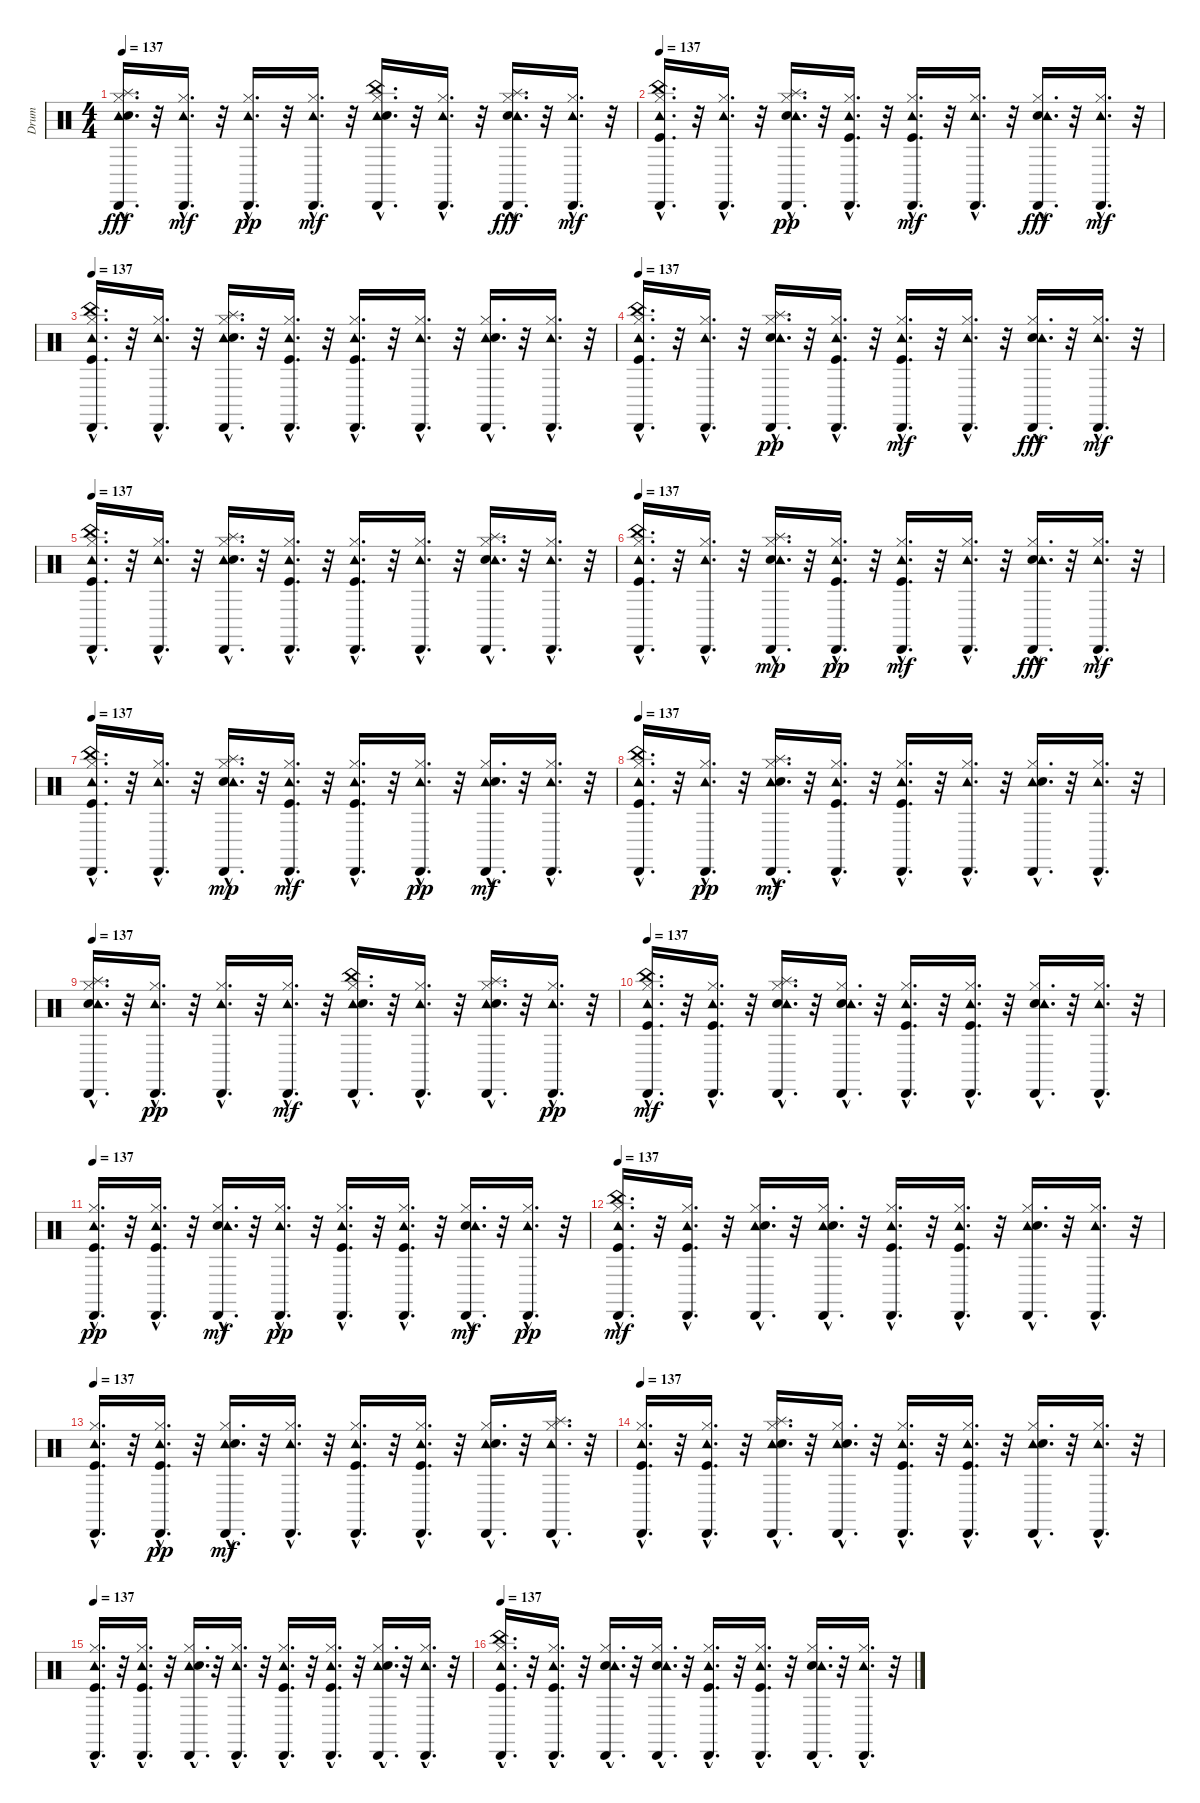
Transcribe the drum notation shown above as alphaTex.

\track ("Drum" "Drum") {instrument percussion}
\staff {score}
\articulation defaults
\ts (4 4)
\tempo 137
\clef neutral
\ks c
("Cabasa (hit)"{hac} "Tambourine (hit)"{hac} "Hi-Hat (closed)"{hac} "Snare (hit) 2"{hac} "Splash (hit)"{hac}).16{d dy fff} r.32 ("Tambourine (hit)"{hac} "Cabasa (hit)"{hac} "Hi-Hat (closed)"{hac}).16{d dy mf} r.32 ("Hi-Hat (closed)"{hac} "Cabasa (hit)"{hac} "Tambourine (hit)"{hac}).16{d dy pp} r.32 ("Hi-Hat (closed)"{hac} "Tambourine (hit)"{hac} "Cabasa (hit)"{hac}).16{d dy mf} r.32 ("Tambourine (hit)"{hac} "Cabasa (hit)"{hac} "China (hit)"{hac} "Hi-Hat (closed)"{hac} "Snare (hit) 2"{hac}).16{d} r.32 ("Tambourine (hit)"{hac} "Cabasa (hit)"{hac} "Hi-Hat (closed)"{hac}).16{d} r.32 ("Hi-Hat (closed)"{hac} "Splash (hit)"{hac} "Snare (hit) 2"{hac} "Cabasa (hit)"{hac} "Tambourine (hit)"{hac}).16{d dy fff} r.32 ("Tambourine (hit)"{hac} "Cabasa (hit)"{hac} "Hi-Hat (closed)"{hac}).16{d dy mf} r.32 |
\tempo 137
("China (hit)"{hac} "Cabasa (hit)"{hac} "Tambourine (hit)"{hac} "Kick (hit)"{hac} "Hi-Hat (closed)"{hac}).16{d} r.32 ("Cabasa (hit)"{hac} "Tambourine (hit)"{hac} "Hi-Hat (closed)"{hac}).16{d} r.32 ("Splash (hit)"{hac} "Cabasa (hit)"{hac} "Snare (hit) 2"{hac} "Hi-Hat (closed)"{hac} "Tambourine (hit)"{hac}).16{d dy pp} r.32 ("Kick (hit)"{hac} "Cabasa (hit)"{hac} "Hi-Hat (closed)"{hac} "Tambourine (hit)"{hac}).16{d} r.32 ("Cabasa (hit)"{hac} "Tambourine (hit)"{hac} "Kick (hit)"{hac} "Hi-Hat (closed)"{hac}).16{d dy mf} r.32 ("Cabasa (hit)"{hac} "Tambourine (hit)"{hac} "Hi-Hat (closed)"{hac}).16{d} r.32 ("Cabasa (hit)"{hac} "Snare (hit) 2"{hac} "Hi-Hat (closed)"{hac} "Tambourine (hit)"{hac}).16{d dy fff} r.32 ("Cabasa (hit)"{hac} "Tambourine (hit)"{hac} "Hi-Hat (closed)"{hac}).16{d dy mf} r.32 |
\tempo 137
("China (hit)"{hac} "Hi-Hat (closed)"{hac} "Kick (hit)"{hac} "Tambourine (hit)"{hac} "Cabasa (hit)"{hac}).16{d} r.32 ("Hi-Hat (closed)"{hac} "Tambourine (hit)"{hac} "Cabasa (hit)"{hac}).16{d} r.32 ("Splash (hit)"{hac} "Tambourine (hit)"{hac} "Hi-Hat (closed)"{hac} "Snare (hit) 2"{hac} "Cabasa (hit)"{hac}).16{d} r.32 ("Tambourine (hit)"{hac} "Hi-Hat (closed)"{hac} "Cabasa (hit)"{hac} "Kick (hit)"{hac}).16{d} r.32 ("Hi-Hat (closed)"{hac} "Kick (hit)"{hac} "Tambourine (hit)"{hac} "Cabasa (hit)"{hac}).16{d} r.32 ("Hi-Hat (closed)"{hac} "Tambourine (hit)"{hac} "Cabasa (hit)"{hac}).16{d} r.32 ("Tambourine (hit)"{hac} "Hi-Hat (closed)"{hac} "Snare (hit) 2"{hac} "Cabasa (hit)"{hac}).16{d} r.32 ("Hi-Hat (closed)"{hac} "Tambourine (hit)"{hac} "Cabasa (hit)"{hac}).16{d} r.32 |
\tempo 137
("China (hit)"{hac} "Cabasa (hit)"{hac} "Tambourine (hit)"{hac} "Kick (hit)"{hac} "Hi-Hat (closed)"{hac}).16{d} r.32 ("Cabasa (hit)"{hac} "Tambourine (hit)"{hac} "Hi-Hat (closed)"{hac}).16{d} r.32 ("Splash (hit)"{hac} "Cabasa (hit)"{hac} "Snare (hit) 2"{hac} "Hi-Hat (closed)"{hac} "Tambourine (hit)"{hac}).16{d dy pp} r.32 ("Kick (hit)"{hac} "Cabasa (hit)"{hac} "Hi-Hat (closed)"{hac} "Tambourine (hit)"{hac}).16{d} r.32 ("Cabasa (hit)"{hac} "Tambourine (hit)"{hac} "Kick (hit)"{hac} "Hi-Hat (closed)"{hac}).16{d dy mf} r.32 ("Cabasa (hit)"{hac} "Tambourine (hit)"{hac} "Hi-Hat (closed)"{hac}).16{d} r.32 ("Cabasa (hit)"{hac} "Snare (hit) 2"{hac} "Hi-Hat (closed)"{hac} "Tambourine (hit)"{hac}).16{d dy fff} r.32 ("Cabasa (hit)"{hac} "Tambourine (hit)"{hac} "Hi-Hat (closed)"{hac}).16{d dy mf} r.32 |
\tempo 137
("China (hit)"{hac} "Cabasa (hit)"{hac} "Tambourine (hit)"{hac} "Hi-Hat (closed)"{hac} "Kick (hit)"{hac}).16{d} r.32 ("Hi-Hat (closed)"{hac} "Tambourine (hit)"{hac} "Cabasa (hit)"{hac}).16{d} r.32 ("Splash (hit)"{hac} "Cabasa (hit)"{hac} "Tambourine (hit)"{hac} "Snare (hit) 2"{hac} "Hi-Hat (closed)"{hac}).16{d} r.32 ("Cabasa (hit)"{hac} "Hi-Hat (closed)"{hac} "Tambourine (hit)"{hac} "Kick (hit)"{hac}).16{d} r.32 ("Tambourine (hit)"{hac} "Hi-Hat (closed)"{hac} "Cabasa (hit)"{hac} "Kick (hit)"{hac}).16{d} r.32 ("Cabasa (hit)"{hac} "Tambourine (hit)"{hac} "Hi-Hat (closed)"{hac}).16{d} r.32 ("Snare (hit) 2"{hac} "Cabasa (hit)"{hac} "Splash (hit)"{hac} "Tambourine (hit)"{hac} "Hi-Hat (closed)"{hac}).16{d} r.32 ("Hi-Hat (closed)"{hac} "Tambourine (hit)"{hac} "Cabasa (hit)"{hac}).16{d} r.32 |
\tempo 137
("China (hit)"{hac} "Cabasa (hit)"{hac} "Tambourine (hit)"{hac} "Kick (hit)"{hac} "Hi-Hat (closed)"{hac}).16{d} r.32 ("Cabasa (hit)"{hac} "Tambourine (hit)"{hac} "Hi-Hat (closed)"{hac}).16{d} r.32 ("Cabasa (hit)"{hac} "Snare (hit) 2"{hac} "Hi-Hat (closed)"{hac} "Tambourine (hit)"{hac} "Splash (hit)"{hac}).16{d dy mp} r.32 ("Kick (hit)"{hac} "Cabasa (hit)"{hac} "Hi-Hat (closed)"{hac} "Tambourine (hit)"{hac}).16{d dy pp} r.32 ("Cabasa (hit)"{hac} "Tambourine (hit)"{hac} "Kick (hit)"{hac} "Hi-Hat (closed)"{hac}).16{d dy mf} r.32 ("Cabasa (hit)"{hac} "Tambourine (hit)"{hac} "Hi-Hat (closed)"{hac}).16{d} r.32 ("Cabasa (hit)"{hac} "Snare (hit) 2"{hac} "Hi-Hat (closed)"{hac} "Tambourine (hit)"{hac}).16{d dy fff} r.32 ("Cabasa (hit)"{hac} "Tambourine (hit)"{hac} "Hi-Hat (closed)"{hac}).16{d dy mf} r.32 |
\tempo 137
("Tambourine (hit)"{hac} "Kick (hit)"{hac} "Cabasa (hit)"{hac} "Hi-Hat (closed)"{hac} "China (hit)"{hac}).16{d} r.32 ("Tambourine (hit)"{hac} "Cabasa (hit)"{hac} "Hi-Hat (closed)"{hac}).16{d} r.32 ("Cabasa (hit)"{hac} "Hi-Hat (closed)"{hac} "Snare (hit) 2"{hac} "Tambourine (hit)"{hac} "Splash (hit)"{hac}).16{d dy mp} r.32 ("Hi-Hat (closed)"{hac} "Tambourine (hit)"{hac} "Cabasa (hit)"{hac} "Kick (hit)"{hac}).16{d dy mf} r.32 ("Kick (hit)"{hac} "Hi-Hat (closed)"{hac} "Tambourine (hit)"{hac} "Cabasa (hit)"{hac}).16{d} r.32 ("Hi-Hat (closed)"{hac} "Cabasa (hit)"{hac} "Tambourine (hit)"{hac}).16{d dy pp} r.32 ("Tambourine (hit)"{hac} "Cabasa (hit)"{hac} "Snare (hit) 2"{hac} "Hi-Hat (closed)"{hac}).16{d dy mf} r.32 ("Tambourine (hit)"{hac} "Cabasa (hit)"{hac} "Hi-Hat (closed)"{hac}).16{d} r.32 |
\tempo 137
("Kick (hit)"{hac} "Hi-Hat (closed)"{hac} "Tambourine (hit)"{hac} "Cabasa (hit)"{hac} "China (hit)"{hac}).16{d} r.32 ("Hi-Hat (closed)"{hac} "Cabasa (hit)"{hac} "Tambourine (hit)"{hac}).16{d dy pp} r.32 ("Tambourine (hit)"{hac} "Snare (hit) 2"{hac} "Hi-Hat (closed)"{hac} "Cabasa (hit)"{hac} "Splash (hit)"{hac}).16{d dy mf} r.32 ("Tambourine (hit)"{hac} "Hi-Hat (closed)"{hac} "Kick (hit)"{hac} "Cabasa (hit)"{hac}).16{d} r.32 ("Hi-Hat (closed)"{hac} "Tambourine (hit)"{hac} "Kick (hit)"{hac} "Cabasa (hit)"{hac}).16{d} r.32 ("Hi-Hat (closed)"{hac} "Tambourine (hit)"{hac} "Cabasa (hit)"{hac}).16{d} r.32 ("Cabasa (hit)"{hac} "Tambourine (hit)"{hac} "Snare (hit) 2"{hac} "Hi-Hat (closed)"{hac}).16{d} r.32 ("Cabasa (hit)"{hac} "Tambourine (hit)"{hac} "Hi-Hat (closed)"{hac}).16{d} r.32 |
\tempo 137
("Hi-Hat (closed)"{hac} "Splash (hit)"{hac} "Snare (hit) 2"{hac} "Tambourine (hit)"{hac} "Cabasa (hit)"{hac}).16{d} r.32 ("Cabasa (hit)"{hac} "Hi-Hat (closed)"{hac} "Tambourine (hit)"{hac}).16{d dy pp} r.32 ("Hi-Hat (closed)"{hac} "Cabasa (hit)"{hac} "Tambourine (hit)"{hac}).16{d} r.32 ("Tambourine (hit)"{hac} "Hi-Hat (closed)"{hac} "Cabasa (hit)"{hac}).16{d dy mf} r.32 ("China (hit)"{hac} "Tambourine (hit)"{hac} "Snare (hit) 2"{hac} "Cabasa (hit)"{hac} "Hi-Hat (closed)"{hac}).16{d} r.32 ("Tambourine (hit)"{hac} "Cabasa (hit)"{hac} "Hi-Hat (closed)"{hac}).16{d} r.32 ("Cabasa (hit)"{hac} "Tambourine (hit)"{hac} "Splash (hit)"{hac} "Hi-Hat (closed)"{hac} "Snare (hit) 2"{hac}).16{d} r.32 ("Hi-Hat (closed)"{hac} "Cabasa (hit)"{hac} "Tambourine (hit)"{hac}).16{d dy pp} r.32 |
\tempo 137
("Kick (hit)"{hac} "Hi-Hat (closed)"{hac} "Tambourine (hit)"{hac} "Cabasa (hit)"{hac} "China (hit)"{hac}).16{d dy mf} r.32 ("Kick (hit)"{hac} "Hi-Hat (closed)"{hac} "Tambourine (hit)"{hac} "Cabasa (hit)"{hac}).16{d} r.32 ("Snare (hit) 2"{hac} "Hi-Hat (closed)"{hac} "Tambourine (hit)"{hac} "Cabasa (hit)"{hac} "Splash (hit)"{hac}).16{d} r.32 ("Snare (hit) 2"{hac} "Hi-Hat (closed)"{hac} "Tambourine (hit)"{hac} "Cabasa (hit)"{hac}).16{d} r.32 ("Kick (hit)"{hac} "Hi-Hat (closed)"{hac} "Tambourine (hit)"{hac} "Cabasa (hit)"{hac}).16{d} r.32 ("Kick (hit)"{hac} "Hi-Hat (closed)"{hac} "Tambourine (hit)"{hac} "Cabasa (hit)"{hac}).16{d} r.32 ("Snare (hit) 2"{hac} "Hi-Hat (closed)"{hac} "Tambourine (hit)"{hac} "Cabasa (hit)"{hac}).16{d} r.32 ("Hi-Hat (closed)"{hac} "Tambourine (hit)"{hac} "Cabasa (hit)"{hac}).16{d} r.32 |
\tempo 137
("Kick (hit)"{hac} "Hi-Hat (closed)"{hac} "Cabasa (hit)"{hac} "Tambourine (hit)"{hac}).16{d dy pp} r.32 ("Kick (hit)"{hac} "Hi-Hat (closed)"{hac} "Cabasa (hit)"{hac} "Tambourine (hit)"{hac}).16{d} r.32 ("Snare (hit) 2"{hac} "Hi-Hat (closed)"{hac} "Tambourine (hit)"{hac} "Cabasa (hit)"{hac}).16{d dy mf} r.32 ("Hi-Hat (closed)"{hac} "Cabasa (hit)"{hac} "Tambourine (hit)"{hac}).16{d dy pp} r.32 ("Kick (hit)"{hac} "Hi-Hat (closed)"{hac} "Cabasa (hit)"{hac} "Tambourine (hit)"{hac}).16{d} r.32 ("Kick (hit)"{hac} "Hi-Hat (closed)"{hac} "Cabasa (hit)"{hac} "Tambourine (hit)"{hac}).16{d} r.32 ("Snare (hit) 2"{hac} "Hi-Hat (closed)"{hac} "Tambourine (hit)"{hac} "Cabasa (hit)"{hac}).16{d dy mf} r.32 ("Hi-Hat (closed)"{hac} "Cabasa (hit)"{hac} "Tambourine (hit)"{hac}).16{d dy pp} r.32 |
\tempo 137
("Cabasa (hit)"{hac} "Tambourine (hit)"{hac} "Hi-Hat (closed)"{hac} "Kick (hit)"{hac} "China (hit)"{hac}).16{d dy mf} r.32 ("Cabasa (hit)"{hac} "Tambourine (hit)"{hac} "Hi-Hat (closed)"{hac} "Kick (hit)"{hac}).16{d} r.32 ("Cabasa (hit)"{hac} "Tambourine (hit)"{hac} "Hi-Hat (closed)"{hac} "Snare (hit) 2"{hac}).16{d} r.32 ("Cabasa (hit)"{hac} "Tambourine (hit)"{hac} "Hi-Hat (closed)"{hac} "Snare (hit) 2"{hac}).16{d} r.32 ("Cabasa (hit)"{hac} "Tambourine (hit)"{hac} "Hi-Hat (closed)"{hac} "Kick (hit)"{hac}).16{d} r.32 ("Cabasa (hit)"{hac} "Tambourine (hit)"{hac} "Hi-Hat (closed)"{hac} "Kick (hit)"{hac}).16{d} r.32 ("Cabasa (hit)"{hac} "Tambourine (hit)"{hac} "Hi-Hat (closed)"{hac} "Snare (hit) 2"{hac}).16{d} r.32 ("Cabasa (hit)"{hac} "Tambourine (hit)"{hac} "Hi-Hat (closed)"{hac}).16{d} r.32 |
\tempo 137
("Cabasa (hit)"{hac} "Tambourine (hit)"{hac} "Kick (hit)"{hac} "Hi-Hat (closed)"{hac}).16{d} r.32 ("Cabasa (hit)"{hac} "Hi-Hat (closed)"{hac} "Kick (hit)"{hac} "Tambourine (hit)"{hac}).16{d dy pp} r.32 ("Tambourine (hit)"{hac} "Cabasa (hit)"{hac} "Hi-Hat (closed)"{hac} "Snare (hit) 2"{hac}).16{d dy mf} r.32 ("Cabasa (hit)"{hac} "Tambourine (hit)"{hac} "Hi-Hat (closed)"{hac}).16{d} r.32 ("Tambourine (hit)"{hac} "Hi-Hat (closed)"{hac} "Cabasa (hit)"{hac} "Kick (hit)"{hac}).16{d} r.32 ("Kick (hit)"{hac} "Cabasa (hit)"{hac} "Tambourine (hit)"{hac} "Hi-Hat (closed)"{hac}).16{d} r.32 ("Tambourine (hit)"{hac} "Cabasa (hit)"{hac} "Snare (hit) 2"{hac} "Hi-Hat (closed)"{hac}).16{d} r.32 ("Tambourine (hit)"{hac} "Splash (hit)"{hac} "Hi-Hat (closed)"{hac} "Cabasa (hit)"{hac}).16{d} r.32 |
\tempo 137
("Cabasa (hit)"{hac} "Tambourine (hit)"{hac} "Hi-Hat (closed)"{hac} "Kick (hit)"{hac}).16{d} r.32 ("Cabasa (hit)"{hac} "Tambourine (hit)"{hac} "Hi-Hat (closed)"{hac} "Kick (hit)"{hac}).16{d} r.32 ("Cabasa (hit)"{hac} "Tambourine (hit)"{hac} "Hi-Hat (closed)"{hac} "Snare (hit) 2"{hac} "Splash (hit)"{hac}).16{d} r.32 ("Cabasa (hit)"{hac} "Tambourine (hit)"{hac} "Hi-Hat (closed)"{hac} "Snare (hit) 2"{hac}).16{d} r.32 ("Cabasa (hit)"{hac} "Tambourine (hit)"{hac} "Hi-Hat (closed)"{hac} "Kick (hit)"{hac}).16{d} r.32 ("Cabasa (hit)"{hac} "Tambourine (hit)"{hac} "Hi-Hat (closed)"{hac} "Kick (hit)"{hac}).16{d} r.32 ("Cabasa (hit)"{hac} "Tambourine (hit)"{hac} "Hi-Hat (closed)"{hac} "Snare (hit) 2"{hac}).16{d} r.32 ("Cabasa (hit)"{hac} "Tambourine (hit)"{hac} "Hi-Hat (closed)"{hac}).16{d} r.32 |
\tempo 137
("Tambourine (hit)"{hac} "Cabasa (hit)"{hac} "Hi-Hat (closed)"{hac} "Kick (hit)"{hac}).16{d} r.32 ("Tambourine (hit)"{hac} "Cabasa (hit)"{hac} "Hi-Hat (closed)"{hac} "Kick (hit)"{hac}).16{d} r.32 ("Cabasa (hit)"{hac} "Tambourine (hit)"{hac} "Hi-Hat (closed)"{hac} "Snare (hit) 2"{hac}).16{d} r.32 ("Tambourine (hit)"{hac} "Cabasa (hit)"{hac} "Hi-Hat (closed)"{hac}).16{d} r.32 ("Tambourine (hit)"{hac} "Cabasa (hit)"{hac} "Hi-Hat (closed)"{hac} "Kick (hit)"{hac}).16{d} r.32 ("Tambourine (hit)"{hac} "Cabasa (hit)"{hac} "Hi-Hat (closed)"{hac} "Kick (hit)"{hac}).16{d} r.32 ("Cabasa (hit)"{hac} "Tambourine (hit)"{hac} "Hi-Hat (closed)"{hac} "Snare (hit) 2"{hac}).16{d} r.32 ("Tambourine (hit)"{hac} "Cabasa (hit)"{hac} "Hi-Hat (closed)"{hac}).16{d} r.32 |
\tempo 137
("Kick (hit)"{hac} "Hi-Hat (closed)"{hac} "Tambourine (hit)"{hac} "Cabasa (hit)"{hac} "China (hit)"{hac}).16{d} r.32 ("Kick (hit)"{hac} "Hi-Hat (closed)"{hac} "Tambourine (hit)"{hac} "Cabasa (hit)"{hac}).16{d} r.32 ("Snare (hit) 2"{hac} "Hi-Hat (closed)"{hac} "Tambourine (hit)"{hac} "Cabasa (hit)"{hac}).16{d} r.32 ("Snare (hit) 2"{hac} "Hi-Hat (closed)"{hac} "Tambourine (hit)"{hac} "Cabasa (hit)"{hac}).16{d} r.32 ("Kick (hit)"{hac} "Hi-Hat (closed)"{hac} "Tambourine (hit)"{hac} "Cabasa (hit)"{hac}).16{d} r.32 ("Kick (hit)"{hac} "Hi-Hat (closed)"{hac} "Tambourine (hit)"{hac} "Cabasa (hit)"{hac}).16{d} r.32 ("Snare (hit) 2"{hac} "Hi-Hat (closed)"{hac} "Tambourine (hit)"{hac} "Cabasa (hit)"{hac}).16{d} r.32 ("Hi-Hat (closed)"{hac} "Tambourine (hit)"{hac} "Cabasa (hit)"{hac}).16{d} r.32
